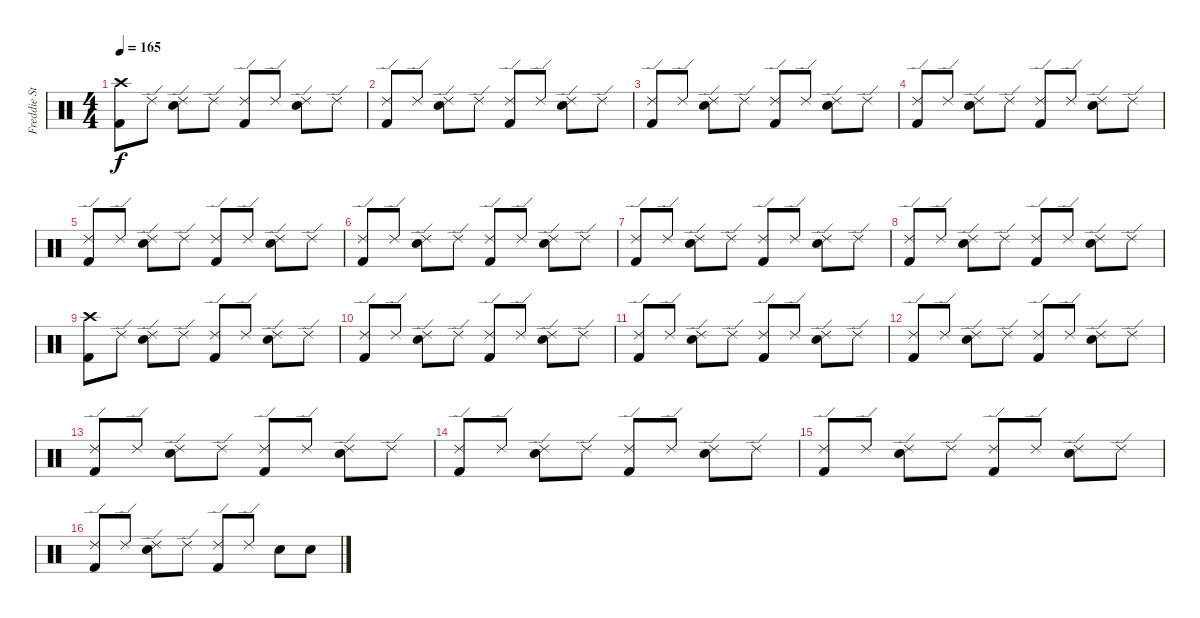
\track ("Freddie Strauks" "Freddie St") {instrument percussion}
\staff {score}
\articulation defaults
\ts (4 4)
\tempo 165
\clef neutral
\ks c
("Crash high (hit)" "Kick (hit) 2").8{dy f volume 13} "Ride (edge) 2".8 ("Ride (edge) 2" "Snare (hit) 2").8 "Ride (edge) 2".8 ("Ride (edge) 2" "Kick (hit) 2").8 "Ride (edge) 2".8 ("Ride (edge) 2" "Snare (hit) 2").8 "Ride (edge) 2".8 |
("Ride (edge) 2" "Kick (hit) 2").8 "Ride (edge) 2".8 ("Ride (edge) 2" "Snare (hit) 2").8 "Ride (edge) 2".8 ("Ride (edge) 2" "Kick (hit) 2").8 "Ride (edge) 2".8 ("Ride (edge) 2" "Snare (hit) 2").8 "Ride (edge) 2".8 |
("Ride (edge) 2" "Kick (hit) 2").8 "Ride (edge) 2".8 ("Ride (edge) 2" "Snare (hit) 2").8 "Ride (edge) 2".8 ("Ride (edge) 2" "Kick (hit) 2").8 "Ride (edge) 2".8 ("Ride (edge) 2" "Snare (hit) 2").8 "Ride (edge) 2".8 |
("Ride (edge) 2" "Kick (hit) 2").8 "Ride (edge) 2".8 ("Ride (edge) 2" "Snare (hit) 2").8 "Ride (edge) 2".8 ("Ride (edge) 2" "Kick (hit) 2").8 "Ride (edge) 2".8 ("Ride (edge) 2" "Snare (hit) 2").8 "Ride (edge) 2".8 |
("Ride (edge) 2" "Kick (hit) 2").8 "Ride (edge) 2".8 ("Ride (edge) 2" "Snare (hit) 2").8 "Ride (edge) 2".8 ("Ride (edge) 2" "Kick (hit) 2").8 "Ride (edge) 2".8 ("Ride (edge) 2" "Snare (hit) 2").8 "Ride (edge) 2".8 |
("Ride (edge) 2" "Kick (hit) 2").8 "Ride (edge) 2".8 ("Ride (edge) 2" "Snare (hit) 2").8 "Ride (edge) 2".8 ("Ride (edge) 2" "Kick (hit) 2").8 "Ride (edge) 2".8 ("Ride (edge) 2" "Snare (hit) 2").8 "Ride (edge) 2".8 |
("Ride (edge) 2" "Kick (hit) 2").8 "Ride (edge) 2".8 ("Ride (edge) 2" "Snare (hit) 2").8 "Ride (edge) 2".8 ("Ride (edge) 2" "Kick (hit) 2").8 "Ride (edge) 2".8 ("Ride (edge) 2" "Snare (hit) 2").8 "Ride (edge) 2".8 |
("Ride (edge) 2" "Kick (hit) 2").8 "Ride (edge) 2".8 ("Ride (edge) 2" "Snare (hit) 2").8 "Ride (edge) 2".8 ("Ride (edge) 2" "Kick (hit) 2").8 "Ride (edge) 2".8 ("Ride (edge) 2" "Snare (hit) 2").8 "Ride (edge) 2".8 |
("Crash high (hit)" "Kick (hit) 2").8 "Ride (edge) 2".8 ("Ride (edge) 2" "Snare (hit) 2").8 "Ride (edge) 2".8 ("Ride (edge) 2" "Kick (hit) 2").8 "Ride (edge) 2".8 ("Ride (edge) 2" "Snare (hit) 2").8 "Ride (edge) 2".8 |
("Ride (edge) 2" "Kick (hit) 2").8 "Ride (edge) 2".8 ("Ride (edge) 2" "Snare (hit) 2").8 "Ride (edge) 2".8 ("Ride (edge) 2" "Kick (hit) 2").8 "Ride (edge) 2".8 ("Ride (edge) 2" "Snare (hit) 2").8 "Ride (edge) 2".8 |
("Ride (edge) 2" "Kick (hit) 2").8 "Ride (edge) 2".8 ("Ride (edge) 2" "Snare (hit) 2").8 "Ride (edge) 2".8 ("Ride (edge) 2" "Kick (hit) 2").8 "Ride (edge) 2".8 ("Ride (edge) 2" "Snare (hit) 2").8 "Ride (edge) 2".8 |
("Ride (edge) 2" "Kick (hit) 2").8 "Ride (edge) 2".8 ("Ride (edge) 2" "Snare (hit) 2").8 "Ride (edge) 2".8 ("Ride (edge) 2" "Kick (hit) 2").8 "Ride (edge) 2".8 ("Ride (edge) 2" "Snare (hit) 2").8 "Ride (edge) 2".8 |
("Ride (edge) 2" "Kick (hit) 2").8 "Ride (edge) 2".8 ("Ride (edge) 2" "Snare (hit) 2").8 "Ride (edge) 2".8 ("Ride (edge) 2" "Kick (hit) 2").8 "Ride (edge) 2".8 ("Ride (edge) 2" "Snare (hit) 2").8 "Ride (edge) 2".8 |
("Ride (edge) 2" "Kick (hit) 2").8 "Ride (edge) 2".8 ("Ride (edge) 2" "Snare (hit) 2").8 "Ride (edge) 2".8 ("Ride (edge) 2" "Kick (hit) 2").8 "Ride (edge) 2".8 ("Ride (edge) 2" "Snare (hit) 2").8 "Ride (edge) 2".8 |
("Ride (edge) 2" "Kick (hit) 2").8 "Ride (edge) 2".8 ("Ride (edge) 2" "Snare (hit) 2").8 "Ride (edge) 2".8 ("Ride (edge) 2" "Kick (hit) 2").8 "Ride (edge) 2".8 ("Ride (edge) 2" "Snare (hit) 2").8 "Ride (edge) 2".8 |
("Ride (edge) 2" "Kick (hit) 2").8 "Ride (edge) 2".8 ("Ride (edge) 2" "Snare (hit) 2").8 "Ride (edge) 2".8 ("Ride (edge) 2" "Kick (hit) 2").8 "Ride (edge) 2".8 "Snare (hit) 2".8 "Snare (hit) 2".8
